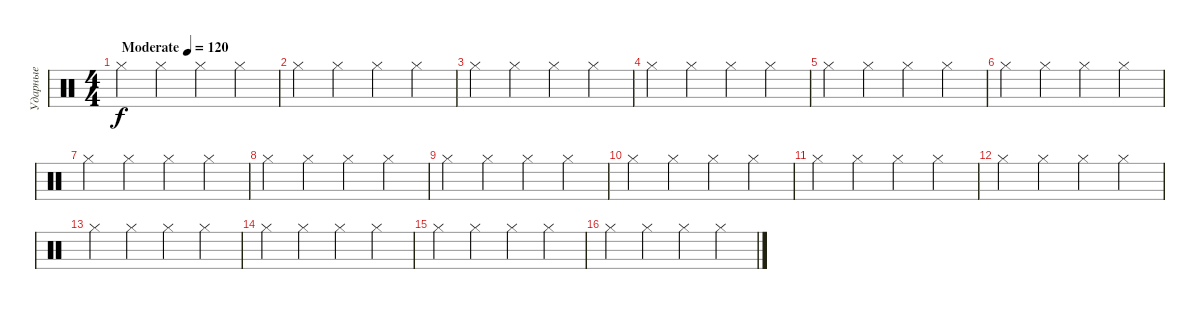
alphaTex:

\track ("Ударные" "Ударные") {instrument percussion}
\staff {score}
\articulation defaults
\ts (4 4)
\tempo (120 "Moderate")
\clef neutral
\ks c "Hi-Hat (closed)".4{dy f} "Hi-Hat (closed)".4 "Hi-Hat (closed)".4 "Hi-Hat (closed)".4
|
"Hi-Hat (closed)".4 "Hi-Hat (closed)".4 "Hi-Hat (closed)".4 "Hi-Hat (closed)".4 |
"Hi-Hat (closed)".4 "Hi-Hat (closed)".4 "Hi-Hat (closed)".4 "Hi-Hat (closed)".4 |
"Hi-Hat (closed)".4 "Hi-Hat (closed)".4 "Hi-Hat (closed)".4 "Hi-Hat (closed)".4 |
"Hi-Hat (closed)".4 "Hi-Hat (closed)".4 "Hi-Hat (closed)".4 "Hi-Hat (closed)".4 |
"Hi-Hat (closed)".4 "Hi-Hat (closed)".4 "Hi-Hat (closed)".4 "Hi-Hat (closed)".4 |
"Hi-Hat (closed)".4 "Hi-Hat (closed)".4 "Hi-Hat (closed)".4 "Hi-Hat (closed)".4 |
"Hi-Hat (closed)".4 "Hi-Hat (closed)".4 "Hi-Hat (closed)".4 "Hi-Hat (closed)".4 |
"Hi-Hat (closed)".4 "Hi-Hat (closed)".4 "Hi-Hat (closed)".4 "Hi-Hat (closed)".4 |
"Hi-Hat (closed)".4 "Hi-Hat (closed)".4 "Hi-Hat (closed)".4 "Hi-Hat (closed)".4 |
"Hi-Hat (closed)".4 "Hi-Hat (closed)".4 "Hi-Hat (closed)".4 "Hi-Hat (closed)".4 |
"Hi-Hat (closed)".4 "Hi-Hat (closed)".4 "Hi-Hat (closed)".4 "Hi-Hat (closed)".4 |
"Hi-Hat (closed)".4 "Hi-Hat (closed)".4 "Hi-Hat (closed)".4 "Hi-Hat (closed)".4 |
"Hi-Hat (closed)".4 "Hi-Hat (closed)".4 "Hi-Hat (closed)".4 "Hi-Hat (closed)".4 |
"Hi-Hat (closed)".4 "Hi-Hat (closed)".4 "Hi-Hat (closed)".4 "Hi-Hat (closed)".4 |
"Hi-Hat (closed)".4 "Hi-Hat (closed)".4 "Hi-Hat (closed)".4 "Hi-Hat (closed)".4
